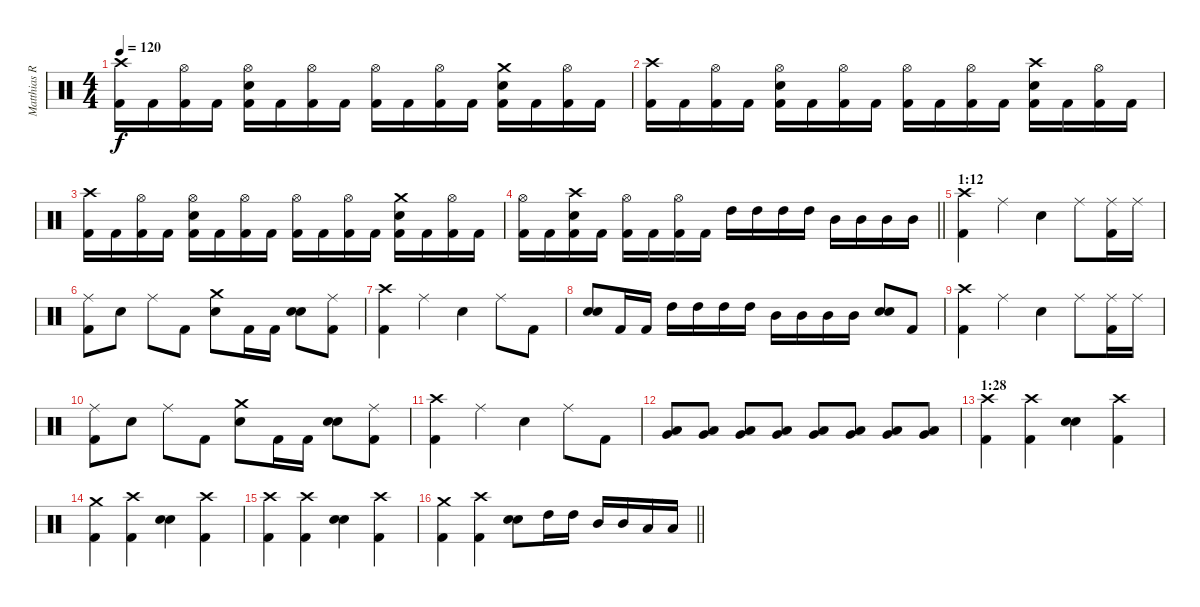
\track ("Matthias R." "Matthias R") {instrument percussion}
\staff {score}
\articulation defaults
\ts (4 4)
\tempo 120
\clef neutral
\ks c
("Kick (hit) 2" "Crash high (hit)").16{dy f} "Kick (hit) 2".16 ("Kick (hit) 2" "Hi-Hat (open)").16 "Kick (hit) 2".16 ("Kick (hit) 2" "Snare (hit) 2" "Hi-Hat (open)").16 "Kick (hit) 2".16 ("Kick (hit) 2" "Hi-Hat (open)").16 "Kick (hit) 2".16 ("Kick (hit) 2" "Hi-Hat (open)").16 "Kick (hit) 2".16 ("Kick (hit) 2" "Hi-Hat (open)").16 "Kick (hit) 2".16 ("Kick (hit) 2" "Snare (hit) 2" "Crash medium (hit)").16 "Kick (hit) 2".16 ("Kick (hit) 2" "Hi-Hat (open)").16 "Kick (hit) 2".16 |
("Kick (hit) 2" "Crash high (hit)").16 "Kick (hit) 2".16 ("Kick (hit) 2" "Hi-Hat (open)").16 "Kick (hit) 2".16 ("Kick (hit) 2" "Snare (hit) 2" "Hi-Hat (open)").16 "Kick (hit) 2".16 ("Kick (hit) 2" "Hi-Hat (open)").16 "Kick (hit) 2".16 ("Kick (hit) 2" "Hi-Hat (open)").16 "Kick (hit) 2".16 ("Kick (hit) 2" "Hi-Hat (open)").16 "Kick (hit) 2".16 ("Kick (hit) 2" "Snare (hit) 2" "Crash high (hit)").16 "Kick (hit) 2".16 ("Kick (hit) 2" "Hi-Hat (open)").16 "Kick (hit) 2".16 |
("Kick (hit) 2" "Crash high (hit)").16 "Kick (hit) 2".16 ("Kick (hit) 2" "Hi-Hat (open)").16 "Kick (hit) 2".16 ("Kick (hit) 2" "Snare (hit) 2" "Hi-Hat (open)").16 "Kick (hit) 2".16 ("Kick (hit) 2" "Hi-Hat (open)").16 "Kick (hit) 2".16 ("Kick (hit) 2" "Hi-Hat (open)").16 "Kick (hit) 2".16 ("Kick (hit) 2" "Hi-Hat (open)").16 "Kick (hit) 2".16 ("Kick (hit) 2" "Snare (hit) 2" "Crash medium (hit)").16 "Kick (hit) 2".16 ("Kick (hit) 2" "Hi-Hat (open)").16 "Kick (hit) 2".16 |
\barLineRight lightlight
("Kick (hit) 2" "Hi-Hat (open)").16 "Kick (hit) 2".16 ("Kick (hit) 2" "Snare (hit) 2" "Crash high (hit)").16 "Kick (hit) 2".16 ("Kick (hit) 2" "Hi-Hat (open)").16 "Kick (hit) 2".16 ("Kick (hit) 2" "Hi-Hat (open)").16 "Kick (hit) 2".16 "High Tom (hit)".16 "High Tom (hit)".16 "High Tom (hit)".16 "High Tom (hit)".16 "Mid Tom (hit)".16 "Mid Tom (hit)".16 "Mid Tom (hit)".16 "Mid Tom (hit)".16 |
\section ("" "1:12")
("Kick (hit) 2" "Crash high (hit)").4 "Ride (middle)".4 "Snare (hit) 2".4 "Ride (middle)".8 ("Kick (hit) 2" "Ride (middle)").16 "Ride (middle)".16 |
("Kick (hit) 2" "Ride (middle)").8 "Snare (hit) 2".8 "Ride (middle)".8 "Kick (hit) 2".8 ("Snare (hit) 2" "Crash medium (hit)").8 "Kick (hit) 2".16 "Kick (hit) 2".16 ("Snare (hit) 2" "Electric Snare (hit)").8{bu 60} ("Kick (hit) 2" "Ride (middle)").8 |
("Kick (hit) 2" "Crash high (hit)").4 "Ride (middle)".4 "Snare (hit) 2".4 "Ride (middle)".8 "Kick (hit) 2".8 |
("Snare (hit) 2" "Snare (hit) 2").8{bu 240} "Kick (hit) 2".16 "Kick (hit) 2".16 "High Tom (hit)".16 "High Tom (hit)".16 "High Tom (hit)".16 "High Tom (hit)".16 "Mid Tom (hit)".16 "Mid Tom (hit)".16 "Mid Tom (hit)".16 "Mid Tom (hit)".16 ("Snare (hit) 2" "Snare (hit) 2").8{bu 240} "Kick (hit) 2".8 |
("Kick (hit) 2" "Crash high (hit)").4 "Ride (middle)".4 "Snare (hit) 2".4 "Ride (middle)".8 ("Kick (hit) 2" "Ride (middle)").16 "Ride (middle)".16 |
("Kick (hit) 2" "Ride (middle)").8 "Snare (hit) 2".8 "Ride (middle)".8 "Kick (hit) 2".8 ("Snare (hit) 2" "Crash medium (hit)").8 "Kick (hit) 2".16 "Kick (hit) 2".16 ("Snare (hit) 2" "Electric Snare (hit)").8{bu 60} ("Kick (hit) 2" "Ride (middle)").8 |
("Kick (hit) 2" "Crash high (hit)").4 "Ride (middle)".4 "Snare (hit) 2".4 "Ride (middle)".8 "Kick (hit) 2".8 |
("Low Tom (hit)" "Very Low Tom (hit)").8 ("Low Tom (hit)" "Very Low Tom (hit)").8 ("Low Tom (hit)" "Very Low Tom (hit)").8 ("Low Tom (hit)" "Very Low Tom (hit)").8 ("Low Tom (hit)" "Very Low Tom (hit)").8 ("Low Tom (hit)" "Very Low Tom (hit)").8 ("Low Tom (hit)" "Very Low Tom (hit)").8 ("Low Tom (hit)" "Very Low Tom (hit)").8 |
\section ("" "1:28")
("Kick (hit) 2" "Crash high (hit)").4 ("Kick (hit) 2" "Crash high (hit)").4 ("Snare (hit) 2" "Electric Snare (hit)").4 ("Kick (hit) 2" "Crash high (hit)").4 |
("Kick (hit) 2" "Crash medium (hit)").4 ("Kick (hit) 2" "Crash high (hit)").4 ("Snare (hit) 2" "Electric Snare (hit)").4 ("Kick (hit) 2" "Crash high (hit)").4 |
("Kick (hit) 2" "Crash high (hit)").4 ("Kick (hit) 2" "Crash high (hit)").4 ("Snare (hit) 2" "Electric Snare (hit)").4 ("Kick (hit) 2" "Crash high (hit)").4 |
\barLineRight lightlight
("Kick (hit) 2" "Crash medium (hit)").4 ("Kick (hit) 2" "Crash high (hit)").4 ("Snare (hit) 2" "Snare (hit) 2").8{bu 60} "High Tom (hit)".16 "High Tom (hit)".16 "Mid Tom (hit)".16 "Mid Tom (hit)".16 "Low Tom (hit)".16 "Low Tom (hit)".16
